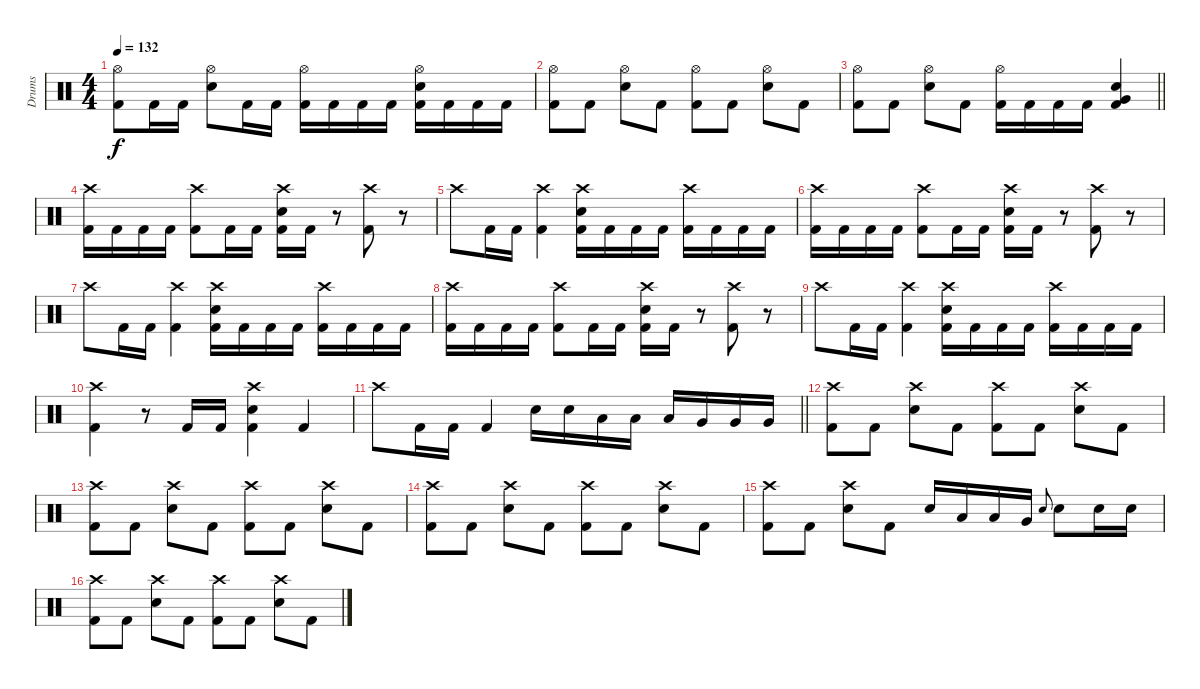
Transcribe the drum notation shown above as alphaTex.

\track ("Drums" "Drums") {instrument percussion}
\staff {score}
\articulation defaults
\ts (4 4)
\tempo 132
\clef neutral
\ks c
("Hi-Hat (open)" "Kick (hit) 2").8{dy f} "Kick (hit) 2".16 "Kick (hit) 2".16 ("Hi-Hat (open)" "Electric Snare (hit)").8 "Kick (hit) 2".16 "Kick (hit) 2".16 ("Hi-Hat (open)" "Kick (hit) 2").16 "Kick (hit) 2".16 "Kick (hit) 2".16 "Kick (hit) 2".16 ("Hi-Hat (open)" "Electric Snare (hit)" "Kick (hit) 2").16 "Kick (hit) 2".16 "Kick (hit) 2".16 "Kick (hit) 2".16 |
("Hi-Hat (open)" "Kick (hit) 2").8 "Kick (hit) 2".8 ("Hi-Hat (open)" "Electric Snare (hit)").8 "Kick (hit) 2".8 ("Hi-Hat (open)" "Kick (hit) 2").8 "Kick (hit) 2".8 ("Hi-Hat (open)" "Electric Snare (hit)").8 "Kick (hit) 2".8 |
\barLineRight lightlight
("Hi-Hat (open)" "Kick (hit) 2").8 "Kick (hit) 2".8 ("Hi-Hat (open)" "Electric Snare (hit)").8 "Kick (hit) 2".8 ("Hi-Hat (open)" "Kick (hit) 2").16 "Kick (hit) 2".16 "Kick (hit) 2".16 "Kick (hit) 2".16 ("Very Low Tom (hit)" "Electric Snare (hit)" "Kick (hit) 2").4 |
\section ("" "")
("Crash high (hit)" "Kick (hit) 2").16 "Kick (hit) 2".16 "Kick (hit) 2".16 "Kick (hit) 2".16 ("Crash high (hit)" "Kick (hit) 2").8 "Kick (hit) 2".16 "Kick (hit) 2".16 ("Crash high (hit)" "Electric Snare (hit)" "Kick (hit) 2").16 "Kick (hit) 2".16 r.8 ("Crash high (hit)" "Kick (hit) 2").8 r.8 |
"Crash high (hit)".8 "Kick (hit) 2".16 "Kick (hit) 2".16 ("Crash high (hit)" "Kick (hit) 2").4 ("Crash high (hit)" "Electric Snare (hit)" "Kick (hit) 2").16 "Kick (hit) 2".16 "Kick (hit) 2".16 "Kick (hit) 2".16 ("Crash high (hit)" "Kick (hit) 2").16 "Kick (hit) 2".16 "Kick (hit) 2".16 "Kick (hit) 2".16 |
("Crash high (hit)" "Kick (hit) 2").16 "Kick (hit) 2".16 "Kick (hit) 2".16 "Kick (hit) 2".16 ("Crash high (hit)" "Kick (hit) 2").8 "Kick (hit) 2".16 "Kick (hit) 2".16 ("Crash high (hit)" "Electric Snare (hit)" "Kick (hit) 2").16 "Kick (hit) 2".16 r.8 ("Crash high (hit)" "Kick (hit) 2").8 r.8 |
"Crash high (hit)".8 "Kick (hit) 2".16 "Kick (hit) 2".16 ("Crash high (hit)" "Kick (hit) 2").4 ("Crash high (hit)" "Electric Snare (hit)" "Kick (hit) 2").16 "Kick (hit) 2".16 "Kick (hit) 2".16 "Kick (hit) 2".16 ("Crash high (hit)" "Kick (hit) 2").16 "Kick (hit) 2".16 "Kick (hit) 2".16 "Kick (hit) 2".16 |
("Crash high (hit)" "Kick (hit) 2").16 "Kick (hit) 2".16 "Kick (hit) 2".16 "Kick (hit) 2".16 ("Crash high (hit)" "Kick (hit) 2").8 "Kick (hit) 2".16 "Kick (hit) 2".16 ("Crash high (hit)" "Electric Snare (hit)" "Kick (hit) 2").16 "Kick (hit) 2".16 r.8 ("Crash high (hit)" "Kick (hit) 2").8 r.8 |
"Crash high (hit)".8 "Kick (hit) 2".16 "Kick (hit) 2".16 ("Crash high (hit)" "Kick (hit) 2").4 ("Crash high (hit)" "Electric Snare (hit)" "Kick (hit) 2").16 "Kick (hit) 2".16 "Kick (hit) 2".16 "Kick (hit) 2".16 ("Crash high (hit)" "Kick (hit) 2").16 "Kick (hit) 2".16 "Kick (hit) 2".16 "Kick (hit) 2".16 |
("Crash high (hit)" "Kick (hit) 2").4 r.8 "Kick (hit) 2".16 "Kick (hit) 2".16 ("Crash high (hit)" "Electric Snare (hit)" "Kick (hit) 2").4 "Kick (hit) 2".4 |
\barLineRight lightlight "Crash high (hit)".8 "Kick (hit) 2".16 "Kick (hit) 2".16 "Kick (hit) 2".4 "Electric Snare (hit)".16 "Electric Snare (hit)".16 "Low Tom (hit)".16 "Low Tom (hit)".16 "Low Tom (hit)".16 "Very Low Tom (hit)".16 "Very Low Tom (hit)".16 "Very Low Tom (hit)".16
|
\section ("" "")
("Crash high (hit)" "Kick (hit) 2").8 "Kick (hit) 2".8 ("Crash high (hit)" "Electric Snare (hit)").8 "Kick (hit) 2".8 ("Crash high (hit)" "Kick (hit) 2").8 "Kick (hit) 2".8 ("Crash high (hit)" "Electric Snare (hit)").8 "Kick (hit) 2".8 |
("Crash high (hit)" "Kick (hit) 2").8 "Kick (hit) 2".8 ("Crash high (hit)" "Electric Snare (hit)").8 "Kick (hit) 2".8 ("Crash high (hit)" "Kick (hit) 2").8 "Kick (hit) 2".8 ("Crash high (hit)" "Electric Snare (hit)").8 "Kick (hit) 2".8 |
("Crash high (hit)" "Kick (hit) 2").8 "Kick (hit) 2".8 ("Crash high (hit)" "Electric Snare (hit)").8 "Kick (hit) 2".8 ("Crash high (hit)" "Kick (hit) 2").8 "Kick (hit) 2".8 ("Crash high (hit)" "Electric Snare (hit)").8 "Kick (hit) 2".8 |
("Crash high (hit)" "Kick (hit) 2").8 "Kick (hit) 2".8 ("Crash high (hit)" "Electric Snare (hit)").8 "Kick (hit) 2".8 "Electric Snare (hit)".16 "Low Tom (hit)".16 "Low Tom (hit)".16 "Very Low Tom (hit)".16 "Electric Snare (hit)".8{gr onbeat} "Electric Snare (hit)".8 "Electric Snare (hit)".16 "Electric Snare (hit)".16 |
("Crash high (hit)" "Kick (hit) 2").8 "Kick (hit) 2".8 ("Crash high (hit)" "Electric Snare (hit)").8 "Kick (hit) 2".8 ("Crash high (hit)" "Kick (hit) 2").8 "Kick (hit) 2".8 ("Crash high (hit)" "Electric Snare (hit)").8 "Kick (hit) 2".8
